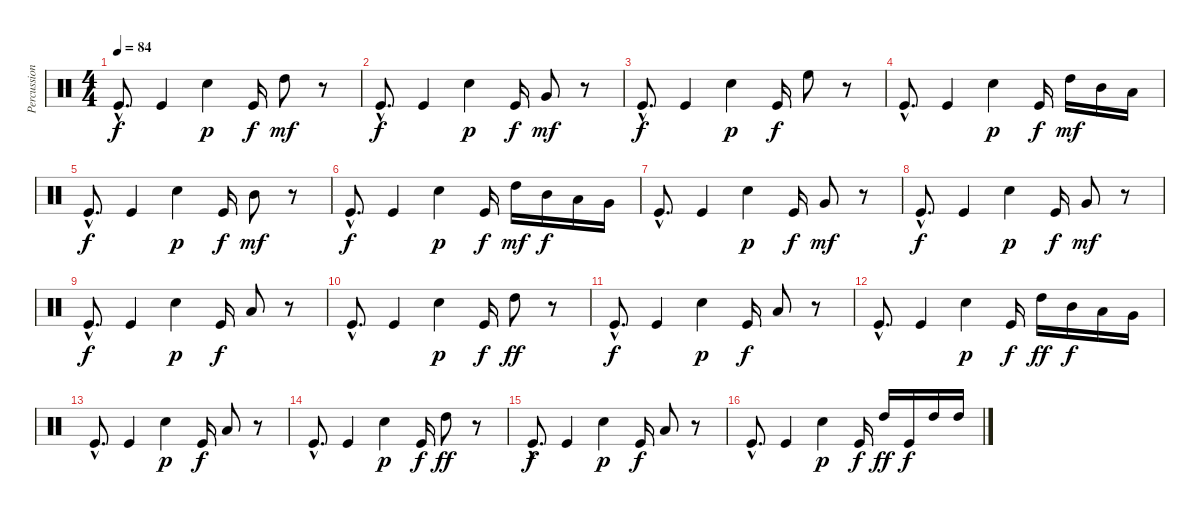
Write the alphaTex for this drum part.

\track ("Percussions" "Percussion") {instrument percussion}
\staff {score}
\articulation defaults
\ts (4 4)
\tempo 84
\clef neutral
\ks c "Kick (hit)"{hac}.8{d dy f} "Kick (hit)".4 "Snare (hit) 2".4{dy p} "Kick (hit)".16{dy f} "High Tom (hit)".8{dy mf}
r.8 |
"Kick (hit)"{hac}.8{d dy f} "Kick (hit)".4 "Snare (hit) 2".4{dy p} "Kick (hit)".16{dy f} "Very Low Tom (hit)".8{dy mf} r.8 |
"Kick (hit)"{hac}.8{d dy f} "Kick (hit)".4 "Snare (hit) 2".4{dy p} "Kick (hit)".16{dy f} "High Floor Tom (hit)".8 r.8 |
"Kick (hit)"{hac}.8{d} "Kick (hit)".4 "Snare (hit) 2".4{dy p} "Kick (hit)".16{dy f} "High Tom (hit)".16{dy mf} "Mid Tom (hit)".16 "Low Tom (hit)".16 |
"Kick (hit)"{hac}.8{d dy f} "Kick (hit)".4 "Snare (hit) 2".4{dy p} "Kick (hit)".16{dy f} "Mid Tom (hit)".8{dy mf} r.8 |
"Kick (hit)"{hac}.8{d dy f} "Kick (hit)".4 "Snare (hit) 2".4{dy p} "Kick (hit)".16{dy f} "High Tom (hit)".16{dy mf} "Mid Tom (hit)".16{dy f} "Low Tom (hit)".16 "Very Low Tom (hit)".16 |
"Kick (hit)"{hac}.8{d} "Kick (hit)".4 "Snare (hit) 2".4{dy p} "Kick (hit)".16{dy f} "Very Low Tom (hit)".8{dy mf} r.8 |
"Kick (hit)"{hac}.8{d dy f} "Kick (hit)".4 "Snare (hit) 2".4{dy p} "Kick (hit)".16{dy f} "Very Low Tom (hit)".8{dy mf} r.8 |
"Kick (hit)"{hac}.8{d dy f} "Kick (hit)".4 "Snare (hit) 2".4{dy p} "Kick (hit)".16{dy f} "Low Tom (hit)".8 r.8 |
"Kick (hit)"{hac}.8{d} "Kick (hit)".4 "Snare (hit) 2".4{dy p} "Kick (hit)".16{dy f} "High Tom (hit)".8{dy ff} r.8 |
"Kick (hit)"{hac}.8{d dy f} "Kick (hit)".4 "Snare (hit) 2".4{dy p} "Kick (hit)".16{dy f} "Low Tom (hit)".8 r.8 |
"Kick (hit)"{hac}.8{d} "Kick (hit)".4 "Snare (hit) 2".4{dy p} "Kick (hit)".16{dy f} "High Tom (hit)".16{dy ff} "Mid Tom (hit)".16{dy f} "Low Tom (hit)".16 "Very Low Tom (hit)".16 |
"Kick (hit)"{hac}.8{d} "Kick (hit)".4 "Snare (hit) 2".4{dy p} "Kick (hit)".16{dy f} "Low Tom (hit)".8 r.8 |
"Kick (hit)"{hac}.8{d} "Kick (hit)".4 "Snare (hit) 2".4{dy p} "Kick (hit)".16{dy f} "High Tom (hit)".8{dy ff} r.8 |
"Kick (hit)"{hac}.8{d dy f} "Kick (hit)".4 "Snare (hit) 2".4{dy p} "Kick (hit)".16{dy f} "Low Tom (hit)".8 r.8 |
"Kick (hit)"{hac}.8{d} "Kick (hit)".4 "Snare (hit) 2".4{dy p} "Kick (hit)".16{dy f} "High Tom (hit)".16{dy ff} "Kick (hit)".16{dy f} "High Tom (hit)".16 "High Tom (hit)".16
